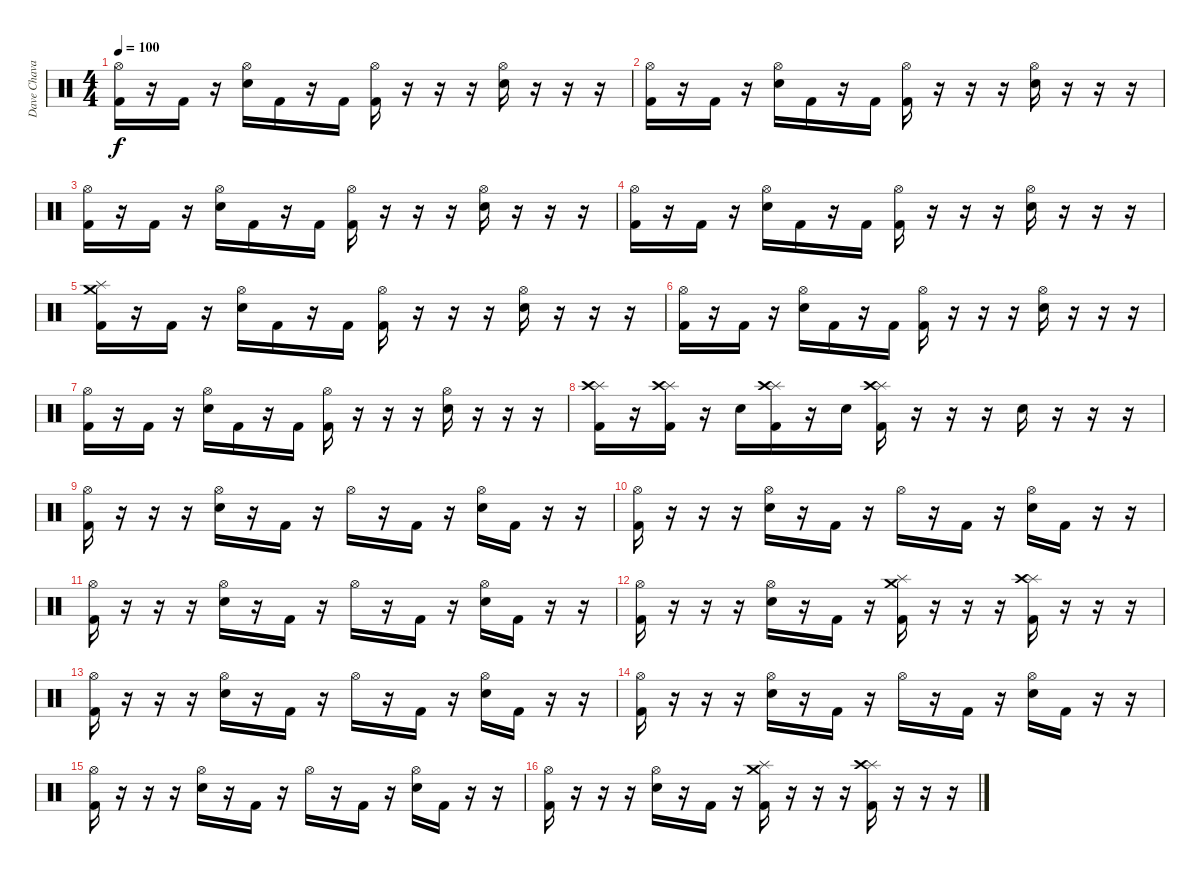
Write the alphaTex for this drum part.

\track ("Dave Chavarri" "Dave Chava") {instrument percussion}
\staff {score}
\articulation defaults
\ts (4 4)
\tempo 100
\clef neutral
\ks c
("Hi-Hat (open)" "Kick (hit) 2").16{dy f} r.16 "Kick (hit) 2".16 r.16 ("Hi-Hat (open)" "Snare (hit) 2").16 "Kick (hit) 2".16 r.16 "Kick (hit) 2".16 ("Hi-Hat (open)" "Kick (hit) 2").16 r.16 r.16 r.16 ("Hi-Hat (open)" "Snare (hit) 2").16 r.16 r.16 r.16 |
("Hi-Hat (open)" "Kick (hit) 2").16 r.16 "Kick (hit) 2".16 r.16 ("Hi-Hat (open)" "Snare (hit) 2").16 "Kick (hit) 2".16 r.16 "Kick (hit) 2".16 ("Hi-Hat (open)" "Kick (hit) 2").16 r.16 r.16 r.16 ("Hi-Hat (open)" "Snare (hit) 2").16 r.16 r.16 r.16 |
("Hi-Hat (open)" "Kick (hit) 2").16 r.16 "Kick (hit) 2".16 r.16 ("Hi-Hat (open)" "Snare (hit) 2").16 "Kick (hit) 2".16 r.16 "Kick (hit) 2".16 ("Hi-Hat (open)" "Kick (hit) 2").16 r.16 r.16 r.16 ("Hi-Hat (open)" "Snare (hit) 2").16 r.16 r.16 r.16 |
("Hi-Hat (open)" "Kick (hit) 2").16 r.16 "Kick (hit) 2".16 r.16 ("Hi-Hat (open)" "Snare (hit) 2").16 "Kick (hit) 2".16 r.16 "Kick (hit) 2".16 ("Hi-Hat (open)" "Kick (hit) 2").16 r.16 r.16 r.16 ("Hi-Hat (open)" "Snare (hit) 2").16 r.16 r.16 r.16 |
("Splash (hit)" "Crash medium (hit)" "Kick (hit) 2").16 r.16 "Kick (hit) 2".16 r.16 ("Hi-Hat (open)" "Snare (hit) 2").16 "Kick (hit) 2".16 r.16 "Kick (hit) 2".16 ("Hi-Hat (open)" "Kick (hit) 2").16 r.16 r.16 r.16 ("Hi-Hat (open)" "Snare (hit) 2").16 r.16 r.16 r.16 |
("Hi-Hat (open)" "Kick (hit) 2").16 r.16 "Kick (hit) 2".16 r.16 ("Hi-Hat (open)" "Snare (hit) 2").16 "Kick (hit) 2".16 r.16 "Kick (hit) 2".16 ("Hi-Hat (open)" "Kick (hit) 2").16 r.16 r.16 r.16 ("Hi-Hat (open)" "Snare (hit) 2").16 r.16 r.16 r.16 |
("Hi-Hat (open)" "Kick (hit) 2").16 r.16 "Kick (hit) 2".16 r.16 ("Hi-Hat (open)" "Snare (hit) 2").16 "Kick (hit) 2".16 r.16 "Kick (hit) 2".16 ("Hi-Hat (open)" "Kick (hit) 2").16 r.16 r.16 r.16 ("Hi-Hat (open)" "Snare (hit) 2").16 r.16 r.16 r.16 |
("Splash (hit)" "Crash high (hit)" "Kick (hit) 2").16 r.16 ("Splash (hit)" "Crash high (hit)" "Kick (hit) 2").16 r.16 "Snare (hit) 2".16 ("Splash (hit)" "Crash high (hit)" "Kick (hit) 2").16 r.16 "Snare (hit) 2".16 ("Splash (hit)" "Crash high (hit)" "Kick (hit) 2").16 r.16 r.16 r.16 "Snare (hit) 2".16 r.16 r.16 r.16 |
("Hi-Hat (open)" "Kick (hit) 2").16 r.16 r.16 r.16 ("Hi-Hat (open)" "Snare (hit) 2").16 r.16 "Kick (hit) 2".16 r.16 "Hi-Hat (open)".16 r.16 "Kick (hit) 2".16 r.16 ("Hi-Hat (open)" "Snare (hit) 2").16 "Kick (hit) 2".16 r.16 r.16 |
("Hi-Hat (open)" "Kick (hit) 2").16 r.16 r.16 r.16 ("Hi-Hat (open)" "Snare (hit) 2").16 r.16 "Kick (hit) 2".16 r.16 "Hi-Hat (open)".16 r.16 "Kick (hit) 2".16 r.16 ("Hi-Hat (open)" "Snare (hit) 2").16 "Kick (hit) 2".16 r.16 r.16 |
("Hi-Hat (open)" "Kick (hit) 2").16 r.16 r.16 r.16 ("Hi-Hat (open)" "Snare (hit) 2").16 r.16 "Kick (hit) 2".16 r.16 "Hi-Hat (open)".16 r.16 "Kick (hit) 2".16 r.16 ("Hi-Hat (open)" "Snare (hit) 2").16 "Kick (hit) 2".16 r.16 r.16 |
("Hi-Hat (open)" "Kick (hit) 2").16 r.16 r.16 r.16 ("Hi-Hat (open)" "Snare (hit) 2").16 r.16 "Kick (hit) 2".16 r.16 ("Splash (hit)" "Crash medium (hit)" "Kick (hit) 2").16 r.16 r.16 r.16 ("Splash (hit)" "Crash high (hit)" "Kick (hit) 2").16 r.16 r.16 r.16 |
("Hi-Hat (open)" "Kick (hit) 2").16 r.16 r.16 r.16 ("Hi-Hat (open)" "Snare (hit) 2").16 r.16 "Kick (hit) 2".16 r.16 "Hi-Hat (open)".16 r.16 "Kick (hit) 2".16 r.16 ("Hi-Hat (open)" "Snare (hit) 2").16 "Kick (hit) 2".16 r.16 r.16 |
("Hi-Hat (open)" "Kick (hit) 2").16 r.16 r.16 r.16 ("Hi-Hat (open)" "Snare (hit) 2").16 r.16 "Kick (hit) 2".16 r.16 "Hi-Hat (open)".16 r.16 "Kick (hit) 2".16 r.16 ("Hi-Hat (open)" "Snare (hit) 2").16 "Kick (hit) 2".16 r.16 r.16 |
("Hi-Hat (open)" "Kick (hit) 2").16 r.16 r.16 r.16 ("Hi-Hat (open)" "Snare (hit) 2").16 r.16 "Kick (hit) 2".16 r.16 "Hi-Hat (open)".16 r.16 "Kick (hit) 2".16 r.16 ("Hi-Hat (open)" "Snare (hit) 2").16 "Kick (hit) 2".16 r.16 r.16 |
("Hi-Hat (open)" "Kick (hit) 2").16 r.16 r.16 r.16 ("Hi-Hat (open)" "Snare (hit) 2").16 r.16 "Kick (hit) 2".16 r.16 ("Splash (hit)" "Crash medium (hit)" "Kick (hit) 2").16 r.16 r.16 r.16 ("Splash (hit)" "Crash high (hit)" "Kick (hit) 2").16 r.16 r.16 r.16
